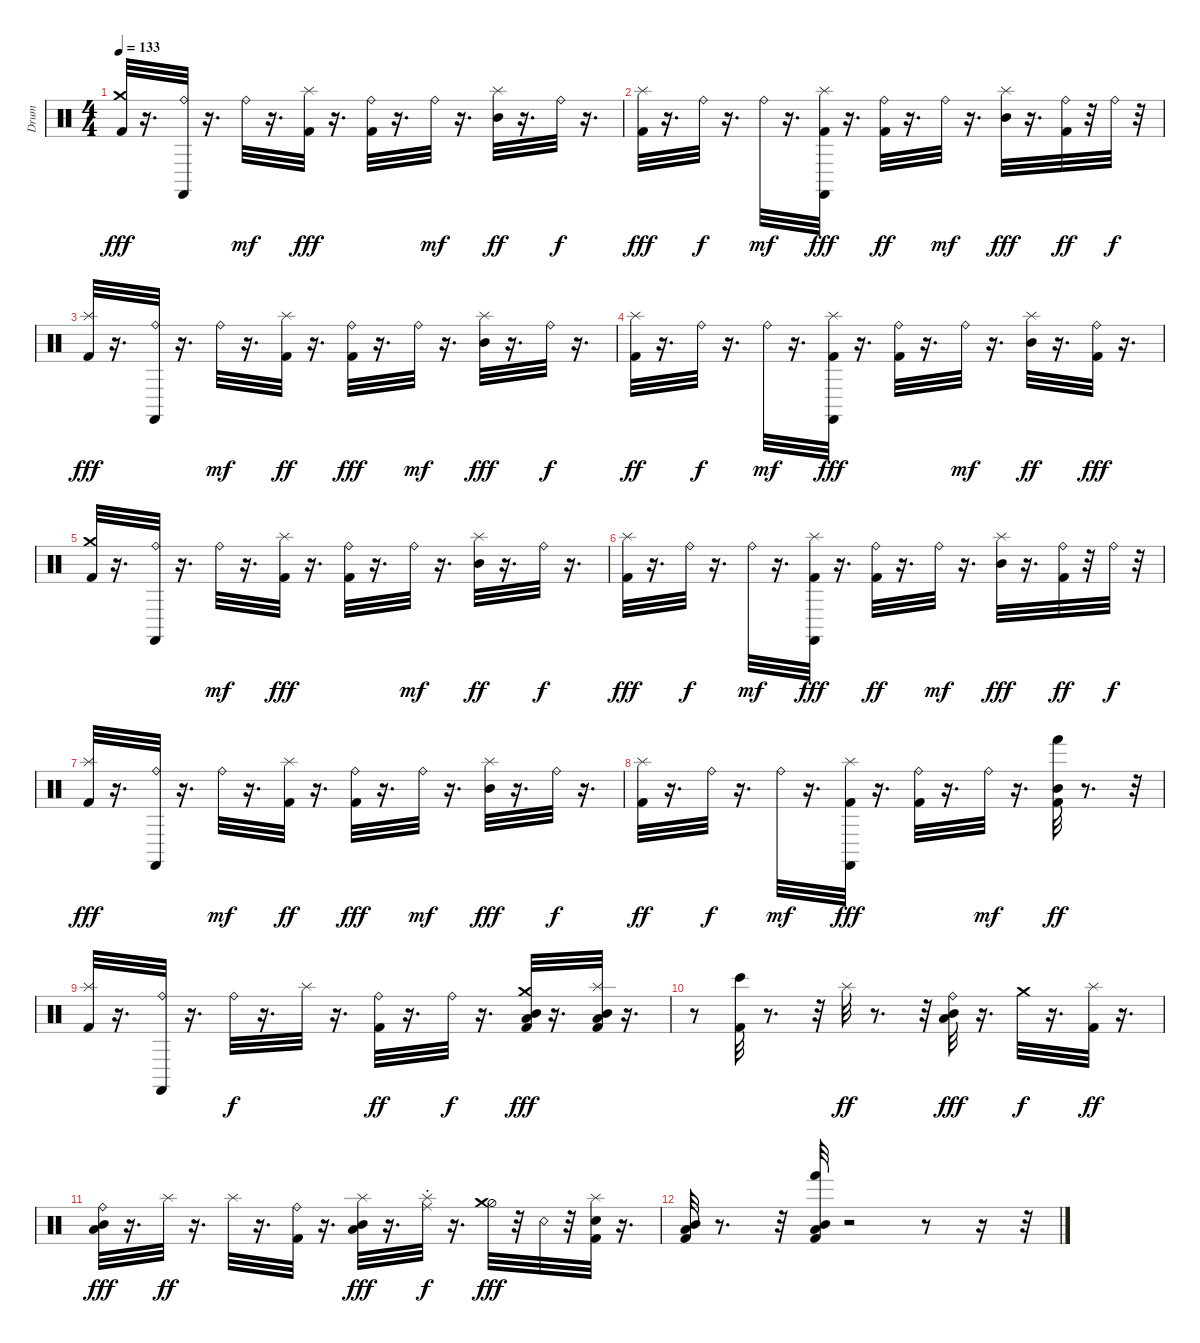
\track ("Drum" "Drum") {instrument percussion}
\staff {score}
\articulation defaults
\ts (4 4)
\tempo 133
\clef neutral
\ks c
("Kick (hit) 2" "Crash medium (hit)").32{dy fff} r.16{d} ("Ride (bell)" "Castanets (hit)").32 r.16{d} "Ride (bell)".32{dy mf} r.16{d} ("Kick (hit) 2" "Splash (hit)").32{dy fff} r.16{d} ("Kick (hit) 2" "Ride (bell)").32 r.16{d} "Ride (bell)".32{dy mf} r.16{d} ("Mid Tom (hit)" "Splash (hit)").32{dy ff} r.16{d} "Ride (bell)".32{dy f} r.16{d} |
("Kick (hit) 2" "Splash (hit)").32{dy fff} r.16{d} "Ride (bell)".32{dy f} r.16{d} "Ride (bell)".32{dy mf} r.16{d} ("Kick (hit) 2" "Splash (hit)" "Castanets (hit)").32{dy fff} r.16{d} ("Kick (hit) 2" "Ride (bell)").32{dy ff} r.16{d} "Ride (bell)".32{dy mf} r.16{d} ("Mid Tom (hit)" "Splash (hit)").32{dy fff} r.16{d} ("Kick (hit) 2" "Ride (bell)").32{dy ff} r.32 "Ride (bell)".32{dy f} r.32 |
("Kick (hit) 2" "Splash (hit)").32{dy fff} r.16{d} ("Ride (bell)" "Castanets (hit)").32 r.16{d} "Ride (bell)".32{dy mf} r.16{d} ("Kick (hit) 2" "Splash (hit)").32{dy ff} r.16{d} ("Kick (hit) 2" "Ride (bell)").32{dy fff} r.16{d} "Ride (bell)".32{dy mf} r.16{d} ("Mid Tom (hit)" "Splash (hit)").32{dy fff} r.16{d} "Ride (bell)".32{dy f} r.16{d} |
("Kick (hit) 2" "Splash (hit)").32{dy ff} r.16{d} "Ride (bell)".32{dy f} r.16{d} "Ride (bell)".32{dy mf} r.16{d} ("Kick (hit) 2" "Splash (hit)" "Castanets (hit)").32{dy fff} r.16{d} ("Kick (hit) 2" "Ride (bell)").32 r.16{d} "Ride (bell)".32{dy mf} r.16{d} ("Mid Tom (hit)" "Splash (hit)").32{dy ff} r.16{d} ("Kick (hit) 2" "Ride (bell)").32{dy fff} r.16{d} |
("Kick (hit) 2" "Crash medium (hit)").32 r.16{d} ("Ride (bell)" "Castanets (hit)").32 r.16{d} "Ride (bell)".32{dy mf} r.16{d} ("Kick (hit) 2" "Splash (hit)").32{dy fff} r.16{d} ("Kick (hit) 2" "Ride (bell)").32 r.16{d} "Ride (bell)".32{dy mf} r.16{d} ("Mid Tom (hit)" "Splash (hit)").32{dy ff} r.16{d} "Ride (bell)".32{dy f} r.16{d} |
("Kick (hit) 2" "Splash (hit)").32{dy fff} r.16{d} "Ride (bell)".32{dy f} r.16{d} "Ride (bell)".32{dy mf} r.16{d} ("Kick (hit) 2" "Splash (hit)" "Castanets (hit)").32{dy fff} r.16{d} ("Kick (hit) 2" "Ride (bell)").32{dy ff} r.16{d} "Ride (bell)".32{dy mf} r.16{d} ("Mid Tom (hit)" "Splash (hit)").32{dy fff} r.16{d} ("Kick (hit) 2" "Ride (bell)").32{dy ff} r.32 "Ride (bell)".32{dy f} r.32 |
("Kick (hit) 2" "Splash (hit)").32{dy fff} r.16{d} ("Ride (bell)" "Castanets (hit)").32 r.16{d} "Ride (bell)".32{dy mf} r.16{d} ("Kick (hit) 2" "Splash (hit)").32{dy ff} r.16{d} ("Kick (hit) 2" "Ride (bell)").32{dy fff} r.16{d} "Ride (bell)".32{dy mf} r.16{d} ("Mid Tom (hit)" "Splash (hit)").32{dy fff} r.16{d} "Ride (bell)".32{dy f} r.16{d} |
("Kick (hit) 2" "Splash (hit)").32{dy ff} r.16{d} "Ride (bell)".32{dy f} r.16{d} "Ride (bell)".32{dy mf} r.16{d} ("Kick (hit) 2" "Splash (hit)" "Castanets (hit)").32{dy fff} r.16{d} ("Kick (hit) 2" "Ride (bell)").32 r.16{d} "Ride (bell)".32{dy mf} r.16{d} ("Kick (hit) 2" "Mid Tom (hit)" "Hand (hit)").32{dy ff} r.8{d} r.32 |
("Kick (hit) 2" "Splash (hit)").32 r.16{d} ("Ride (bell)" "Castanets (hit)").32 r.16{d} "Ride (bell)".32{dy f} r.16{d} "Splash (hit)".32 r.16{d} ("Kick (hit) 2" "Ride (bell)").32{dy ff} r.16{d} "Ride (bell)".32{dy f} r.16{d} ("Kick (hit) 2" "Low Tom (hit)" "Crash medium (hit)" "Mid Tom (hit)").32{dy fff} r.16{d} ("Kick (hit) 2" "Low Tom (hit)" "Splash (hit)" "Mid Tom (hit)").32 r.16{d} |
r.8 ("Kick (hit) 2" "Bongo High (hit)").32 r.8{d} r.32 "Splash (hit)".32{dy ff} r.8{d} r.32 ("Low Tom (hit)" "Ride (bell)" "Mid Tom (hit)").32{dy fff} r.16{d} "Crash medium (hit)".32{dy f} r.16{d} ("Kick (hit) 2" "Splash (hit)").32{dy ff} r.16{d} |
("Low Tom (hit)" "Ride (bell)" "Mid Tom (hit)").32{dy fff} r.16{d} "Splash (hit)".32{dy ff} r.16{d} "Splash (hit)".32 r.16{d} ("Kick (hit) 2" "Ride (bell)").32 r.16{d} ("Low Tom (hit)" "Splash (hit)" "Mid Tom (hit)").32{dy fff} r.16{d} ("Ride (choke)" "Splash (hit)").32{dy f} r.16{d} ("Hi-Hat (half)" "Crash medium (hit)").32{dy fff} r.32 "Snare (rim shot)".32 r.32 ("Kick (hit) 2" "Snare (hit)" "Splash (hit)").32 r.16{d} |
("Kick (hit) 2" "Low Tom (hit)" "Mid Tom (hit)").32 r.8{d} r.32 ("Kick (hit) 2" "Low Tom (hit)" "Hand (hit)" "Mid Tom (hit)").32 r.2 r.8 r.16 r.32
